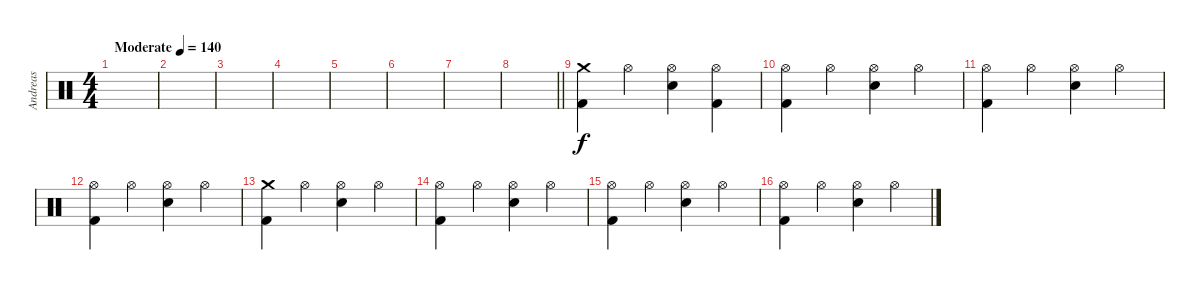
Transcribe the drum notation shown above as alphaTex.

\track ("Andreas" "Andreas") {instrument percussion}
\staff {score}
\articulation defaults
\ts (4 4)
\tempo (140 "Moderate")
\clef neutral
\ks c
|
|
|
|
|
|
|
\barLineRight lightlight
|
\section ("" "")
("Crash medium (hit)" "Kick (hit) 2").4 "Hi-Hat (open)".4 ("Hi-Hat (open)" "Electric Snare (hit)").4 ("Hi-Hat (open)" "Kick (hit) 2").4 |
("Hi-Hat (open)" "Kick (hit) 2").4 "Hi-Hat (open)".4 ("Hi-Hat (open)" "Electric Snare (hit)").4 "Hi-Hat (open)".4 |
("Hi-Hat (open)" "Kick (hit) 2").4 "Hi-Hat (open)".4 ("Hi-Hat (open)" "Electric Snare (hit)").4 "Hi-Hat (open)".4 |
("Hi-Hat (open)" "Kick (hit) 2").4 "Hi-Hat (open)".4 ("Hi-Hat (open)" "Electric Snare (hit)").4 "Hi-Hat (open)".4 |
("Crash medium (hit)" "Kick (hit) 2").4 "Hi-Hat (open)".4 ("Hi-Hat (open)" "Electric Snare (hit)").4 "Hi-Hat (open)".4 |
("Hi-Hat (open)" "Kick (hit) 2").4 "Hi-Hat (open)".4 ("Hi-Hat (open)" "Electric Snare (hit)").4 "Hi-Hat (open)".4 |
("Hi-Hat (open)" "Kick (hit) 2").4 "Hi-Hat (open)".4 ("Hi-Hat (open)" "Electric Snare (hit)").4 "Hi-Hat (open)".4 |
("Hi-Hat (open)" "Kick (hit) 2").4 "Hi-Hat (open)".4 ("Hi-Hat (open)" "Electric Snare (hit)").4 "Hi-Hat (open)".4
